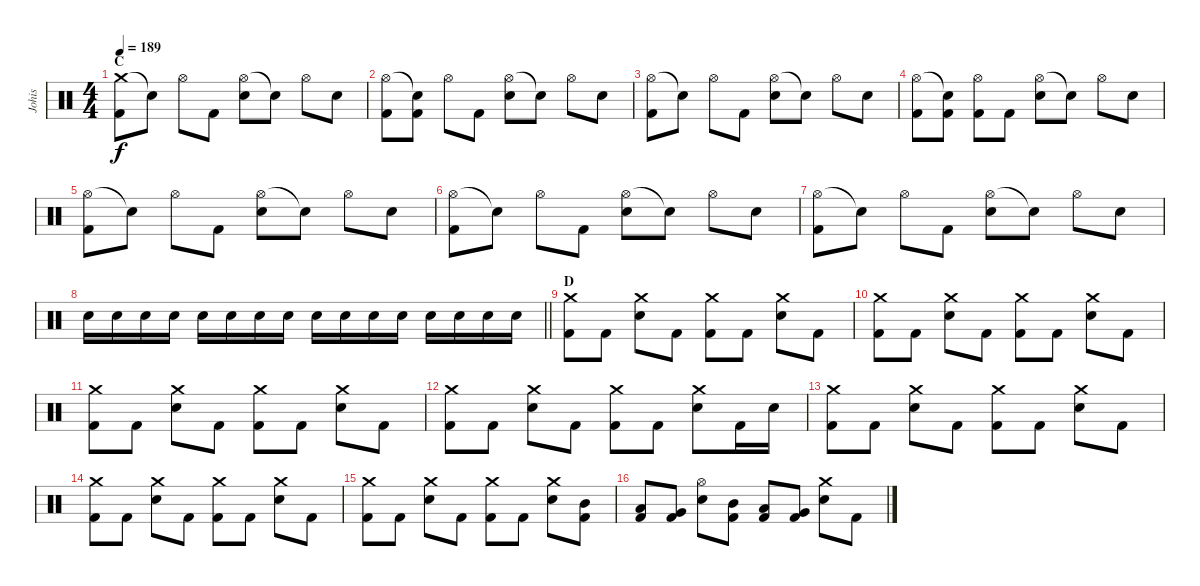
\track ("Johis" "Johis") {instrument percussion}
\staff {score}
\articulation defaults
\ts (4 4)
\section ("" "C")
\tempo 189
\clef neutral
\ks c
("Crash medium (hit)" "Kick (hit) 2").8{dy f} "Snare (hit)"{t}.8 "Hi-Hat (open)".8 "Kick (hit) 2".8 ("Hi-Hat (open)" "Electric Snare (hit)").8 "Snare (hit)"{t}.8 "Hi-Hat (open)".8 "Electric Snare (hit)".8 |
("Hi-Hat (open)" "Kick (hit) 2").8 ("Snare (hit)"{t} "Kick (hit) 2").8 "Hi-Hat (open)".8 "Kick (hit) 2".8 ("Hi-Hat (open)" "Electric Snare (hit)").8 "Snare (hit)"{t}.8 "Hi-Hat (open)".8 "Electric Snare (hit)".8 |
("Hi-Hat (open)" "Kick (hit) 2").8 "Snare (hit)"{t}.8 "Hi-Hat (open)".8 "Kick (hit) 2".8 ("Hi-Hat (open)" "Electric Snare (hit)").8 "Snare (hit)"{t}.8 "Hi-Hat (open)".8 "Electric Snare (hit)".8 |
("Hi-Hat (open)" "Kick (hit) 2").8 ("Snare (hit)"{t} "Kick (hit) 2").8 ("Hi-Hat (open)" "Kick (hit) 2").8 "Kick (hit) 2".8 ("Hi-Hat (open)" "Electric Snare (hit)").8 "Snare (hit)"{t}.8 "Hi-Hat (open)".8 "Electric Snare (hit)".8 |
("Hi-Hat (open)" "Kick (hit) 2").8 "Snare (hit)"{t}.8 "Hi-Hat (open)".8 "Kick (hit) 2".8 ("Hi-Hat (open)" "Electric Snare (hit)").8 "Snare (hit)"{t}.8 "Hi-Hat (open)".8 "Electric Snare (hit)".8 |
("Hi-Hat (open)" "Kick (hit) 2").8 "Snare (hit)"{t}.8 "Hi-Hat (open)".8 "Kick (hit) 2".8 ("Hi-Hat (open)" "Electric Snare (hit)").8 "Snare (hit)"{t}.8 "Hi-Hat (open)".8 "Electric Snare (hit)".8 |
("Hi-Hat (open)" "Kick (hit) 2").8 "Snare (hit)"{t}.8 "Hi-Hat (open)".8 "Kick (hit) 2".8 ("Hi-Hat (open)" "Electric Snare (hit)").8 "Snare (hit)"{t}.8 "Hi-Hat (open)".8 "Electric Snare (hit)".8 |
\barLineRight lightlight "Electric Snare (hit)".16 "Electric Snare (hit)".16 "Electric Snare (hit)".16 "Electric Snare (hit)".16 "Electric Snare (hit)".16 "Electric Snare (hit)".16 "Electric Snare (hit)".16 "Electric Snare (hit)".16 "Electric Snare (hit)".16 "Electric Snare (hit)".16 "Electric Snare (hit)".16 "Electric Snare (hit)".16 "Electric Snare (hit)".16 "Electric Snare (hit)".16 "Electric Snare (hit)".16 "Electric Snare (hit)".16
|
\section ("" "D")
("Crash medium (hit)" "Kick (hit) 2").8 "Kick (hit) 2".8 ("Crash medium (hit)" "Electric Snare (hit)").8 "Kick (hit) 2".8 ("Crash medium (hit)" "Kick (hit) 2").8 "Kick (hit) 2".8 ("Crash medium (hit)" "Electric Snare (hit)").8 "Kick (hit) 2".8 |
("Crash medium (hit)" "Kick (hit) 2").8 "Kick (hit) 2".8 ("Crash medium (hit)" "Electric Snare (hit)").8 "Kick (hit) 2".8 ("Crash medium (hit)" "Kick (hit) 2").8 "Kick (hit) 2".8 ("Crash medium (hit)" "Electric Snare (hit)").8 "Kick (hit) 2".8 |
("Crash medium (hit)" "Kick (hit) 2").8 "Kick (hit) 2".8 ("Crash medium (hit)" "Electric Snare (hit)").8 "Kick (hit) 2".8 ("Crash medium (hit)" "Kick (hit) 2").8 "Kick (hit) 2".8 ("Crash medium (hit)" "Electric Snare (hit)").8 "Kick (hit) 2".8 |
("Crash medium (hit)" "Kick (hit) 2").8 "Kick (hit) 2".8 ("Crash medium (hit)" "Electric Snare (hit)").8 "Kick (hit) 2".8 ("Crash medium (hit)" "Kick (hit) 2").8 "Kick (hit) 2".8 ("Crash medium (hit)" "Electric Snare (hit)").8 "Kick (hit) 2".16 "Electric Snare (hit)".16 |
("Crash medium (hit)" "Kick (hit) 2").8 "Kick (hit) 2".8 ("Crash medium (hit)" "Electric Snare (hit)").8 "Kick (hit) 2".8 ("Crash medium (hit)" "Kick (hit) 2").8 "Kick (hit) 2".8 ("Crash medium (hit)" "Electric Snare (hit)").8 "Kick (hit) 2".8 |
("Crash medium (hit)" "Kick (hit) 2").8 "Kick (hit) 2".8 ("Crash medium (hit)" "Electric Snare (hit)").8 "Kick (hit) 2".8 ("Crash medium (hit)" "Kick (hit) 2").8 "Kick (hit) 2".8 ("Crash medium (hit)" "Electric Snare (hit)").8 "Kick (hit) 2".8 |
("Crash medium (hit)" "Kick (hit) 2").8 "Kick (hit) 2".8 ("Crash medium (hit)" "Electric Snare (hit)").8 "Kick (hit) 2".8 ("Crash medium (hit)" "Kick (hit) 2").8 "Kick (hit) 2".8 ("Crash medium (hit)" "Electric Snare (hit)").8 ("Mid Tom (hit)" "Kick (hit) 2").8 |
("Low Tom (hit)" "Kick (hit) 2").8 ("Very Low Tom (hit)" "Kick (hit) 2").8 ("Hi-Hat (open)" "Electric Snare (hit)").8 ("Mid Tom (hit)" "Kick (hit) 2").8 ("Low Tom (hit)" "Kick (hit) 2").8 ("Very Low Tom (hit)" "Kick (hit) 2").8 ("Crash medium (hit)" "Electric Snare (hit)").8 "Kick (hit) 2".8
